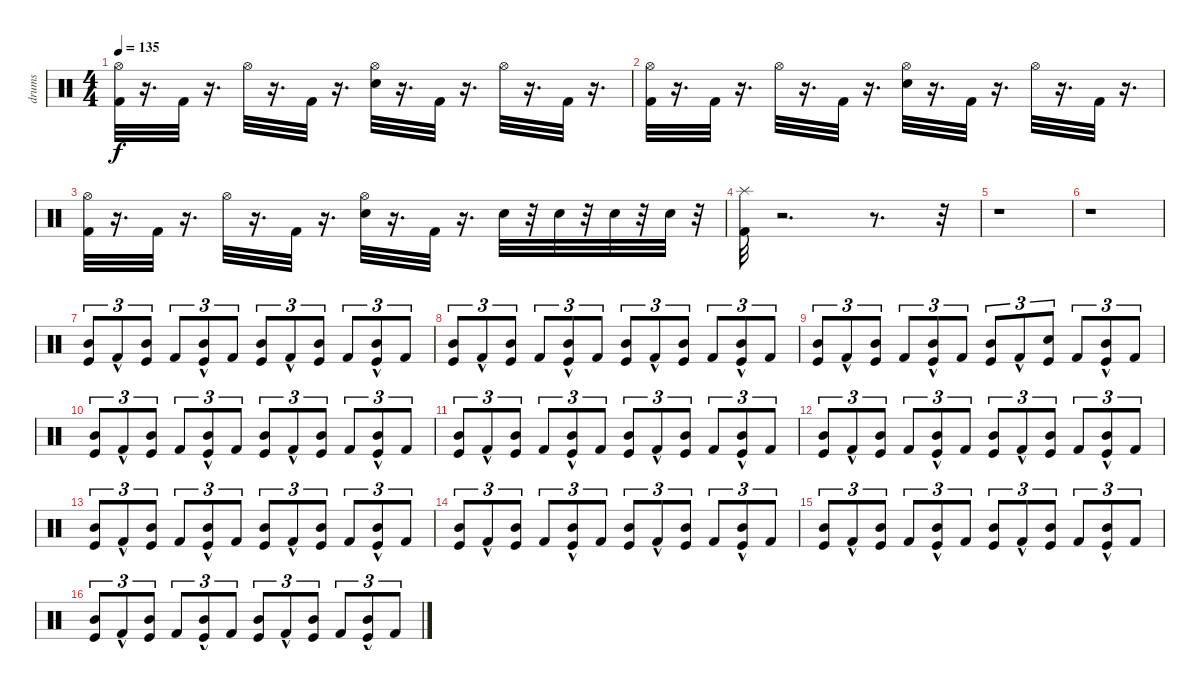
\track ("drums" "drums") {instrument percussion}
\staff {score}
\articulation defaults
\ts (4 4)
\tempo 135
\clef neutral
\ks c
("Hi-Hat (open)" "Kick (hit) 2").32{dy f} r.16{d} "Kick (hit) 2".32 r.16{d} "Hi-Hat (open)".32 r.16{d} "Kick (hit) 2".32 r.16{d} ("Hi-Hat (open)" "Snare (hit) 2").32 r.16{d} "Kick (hit) 2".32 r.16{d} "Hi-Hat (open)".32 r.16{d} "Kick (hit) 2".32 r.16{d} |
("Hi-Hat (open)" "Kick (hit) 2").32 r.16{d} "Kick (hit) 2".32 r.16{d} "Hi-Hat (open)".32 r.16{d} "Kick (hit) 2".32 r.16{d} ("Hi-Hat (open)" "Snare (hit) 2").32 r.16{d} "Kick (hit) 2".32 r.16{d} "Hi-Hat (open)".32 r.16{d} "Kick (hit) 2".32 r.16{d} |
("Hi-Hat (open)" "Kick (hit) 2").32 r.16{d} "Kick (hit) 2".32 r.16{d} "Hi-Hat (open)".32 r.16{d} "Kick (hit) 2".32 r.16{d} ("Hi-Hat (open)" "Snare (hit) 2").32 r.16{d} "Kick (hit) 2".32 r.16{d} "Snare (hit) 2".32 r.32 "Snare (hit) 2".32 r.32 "Snare (hit) 2".32 r.32 "Snare (hit) 2".32 r.32 |
("Splash (hit)" "Kick (hit) 2").32 r.2{d} r.8{d} r.32 |
r.1 |
r.1 |
("Kick (hit)" "Mid Tom (hit)").8{tu (3 2)} "Kick (hit) 2"{hac}.8{tu (3 2)} ("Kick (hit)" "Mid Tom (hit)").8{tu (3 2)} "Kick (hit) 2".8{tu (3 2)} ("Kick (hit)"{hac} "Mid Tom (hit)"{hac}).8{tu (3 2)} "Kick (hit) 2".8{tu (3 2)} ("Mid Tom (hit)" "Kick (hit)").8{tu (3 2)} "Kick (hit) 2"{hac}.8{tu (3 2)} ("Mid Tom (hit)" "Kick (hit)").8{tu (3 2)} "Kick (hit) 2".8{tu (3 2)} ("Mid Tom (hit)"{hac} "Kick (hit)"{hac}).8{tu (3 2)} "Kick (hit) 2".8{tu (3 2)} |
("Mid Tom (hit)" "Kick (hit)").8{tu (3 2)} "Kick (hit) 2"{hac}.8{tu (3 2)} ("Kick (hit)" "Mid Tom (hit)").8{tu (3 2)} "Kick (hit) 2".8{tu (3 2)} ("Kick (hit)"{hac} "Mid Tom (hit)"{hac}).8{tu (3 2)} "Kick (hit) 2".8{tu (3 2)} ("Kick (hit)" "Mid Tom (hit)").8{tu (3 2)} "Kick (hit) 2"{hac}.8{tu (3 2)} ("Mid Tom (hit)" "Kick (hit)").8{tu (3 2)} "Kick (hit) 2".8{tu (3 2)} ("Mid Tom (hit)"{hac} "Kick (hit)"{hac}).8{tu (3 2)} "Kick (hit) 2".8{tu (3 2)} |
("Mid Tom (hit)" "Kick (hit)").8{tu (3 2)} "Kick (hit) 2"{hac}.8{tu (3 2)} ("Kick (hit)" "Mid Tom (hit)").8{tu (3 2)} "Kick (hit) 2".8{tu (3 2)} ("Mid Tom (hit)"{hac} "Kick (hit)"{hac}).8{tu (3 2)} "Kick (hit) 2".8{tu (3 2)} ("Kick (hit)" "Mid Tom (hit)").8{tu (3 2)} "Kick (hit) 2"{hac}.8{tu (3 2)} ("Kick (hit)" "Electric Snare (hit)").8{tu (3 2)} "Kick (hit) 2".8{tu (3 2)} ("Kick (hit)"{hac} "Mid Tom (hit)"{hac}).8{tu (3 2)} "Kick (hit) 2".8{tu (3 2)} |
("Kick (hit)" "Mid Tom (hit)").8{tu (3 2)} "Kick (hit) 2"{hac}.8{tu (3 2)} ("Kick (hit)" "Mid Tom (hit)").8{tu (3 2)} "Kick (hit) 2".8{tu (3 2)} ("Mid Tom (hit)"{hac} "Kick (hit)"{hac}).8{tu (3 2)} "Kick (hit) 2".8{tu (3 2)} ("Mid Tom (hit)" "Kick (hit)").8{tu (3 2)} "Kick (hit) 2"{hac}.8{tu (3 2)} ("Mid Tom (hit)" "Kick (hit)").8{tu (3 2)} "Kick (hit) 2".8{tu (3 2)} ("Mid Tom (hit)"{hac} "Kick (hit)"{hac}).8{tu (3 2)} "Kick (hit) 2".8{tu (3 2)} |
("Kick (hit)" "Mid Tom (hit)").8{tu (3 2)} "Kick (hit) 2"{hac}.8{tu (3 2)} ("Kick (hit)" "Mid Tom (hit)").8{tu (3 2)} "Kick (hit) 2".8{tu (3 2)} ("Kick (hit)"{hac} "Mid Tom (hit)"{hac}).8{tu (3 2)} "Kick (hit) 2".8{tu (3 2)} ("Mid Tom (hit)" "Kick (hit)").8{tu (3 2)} "Kick (hit) 2"{hac}.8{tu (3 2)} ("Mid Tom (hit)" "Kick (hit)").8{tu (3 2)} "Kick (hit) 2".8{tu (3 2)} ("Mid Tom (hit)"{hac} "Kick (hit)"{hac}).8{tu (3 2)} "Kick (hit) 2".8{tu (3 2)} |
("Kick (hit)" "Mid Tom (hit)").8{tu (3 2)} "Kick (hit) 2"{hac}.8{tu (3 2)} ("Mid Tom (hit)" "Kick (hit)").8{tu (3 2)} "Kick (hit) 2".8{tu (3 2)} ("Kick (hit)"{hac} "Mid Tom (hit)"{hac}).8{tu (3 2)} "Kick (hit) 2".8{tu (3 2)} ("Kick (hit)" "Mid Tom (hit)").8{tu (3 2)} "Kick (hit) 2"{hac}.8{tu (3 2)} ("Kick (hit)" "Mid Tom (hit)").8{tu (3 2)} "Kick (hit) 2".8{tu (3 2)} ("Kick (hit)"{hac} "Mid Tom (hit)"{hac}).8{tu (3 2)} "Kick (hit) 2".8{tu (3 2)} |
("Kick (hit)" "Mid Tom (hit)").8{tu (3 2)} "Kick (hit) 2"{hac}.8{tu (3 2)} ("Mid Tom (hit)" "Kick (hit)").8{tu (3 2)} "Kick (hit) 2".8{tu (3 2)} ("Mid Tom (hit)"{hac} "Kick (hit)"{hac}).8{tu (3 2)} "Kick (hit) 2".8{tu (3 2)} ("Mid Tom (hit)" "Kick (hit)").8{tu (3 2)} "Kick (hit) 2"{hac}.8{tu (3 2)} ("Mid Tom (hit)" "Kick (hit)").8{tu (3 2)} "Kick (hit) 2".8{tu (3 2)} ("Kick (hit)"{hac} "Mid Tom (hit)"{hac}).8{tu (3 2)} "Kick (hit) 2".8{tu (3 2)} |
("Kick (hit)" "Mid Tom (hit)").8{tu (3 2)} "Kick (hit) 2"{hac}.8{tu (3 2)} ("Kick (hit)" "Mid Tom (hit)").8{tu (3 2)} "Kick (hit) 2".8{tu (3 2)} ("Mid Tom (hit)"{hac} "Kick (hit)"{hac}).8{tu (3 2)} "Kick (hit) 2".8{tu (3 2)} ("Mid Tom (hit)" "Kick (hit)").8{tu (3 2)} "Kick (hit) 2"{hac}.8{tu (3 2)} ("Mid Tom (hit)" "Kick (hit)").8{tu (3 2)} "Kick (hit) 2".8{tu (3 2)} ("Kick (hit)"{hac} "Mid Tom (hit)"{hac}).8{tu (3 2)} "Kick (hit) 2".8{tu (3 2)} |
("Mid Tom (hit)" "Kick (hit)").8{tu (3 2)} "Kick (hit) 2"{hac}.8{tu (3 2)} ("Kick (hit)" "Mid Tom (hit)").8{tu (3 2)} "Kick (hit) 2".8{tu (3 2)} ("Kick (hit)"{hac} "Mid Tom (hit)"{hac}).8{tu (3 2)} "Kick (hit) 2".8{tu (3 2)} ("Kick (hit)" "Mid Tom (hit)").8{tu (3 2)} "Kick (hit) 2"{hac}.8{tu (3 2)} ("Kick (hit)" "Mid Tom (hit)").8{tu (3 2)} "Kick (hit) 2".8{tu (3 2)} ("Kick (hit)"{hac} "Mid Tom (hit)"{hac}).8{tu (3 2)} "Kick (hit) 2".8{tu (3 2)} |
("Mid Tom (hit)" "Kick (hit)").8{tu (3 2)} "Kick (hit) 2"{hac}.8{tu (3 2)} ("Mid Tom (hit)" "Kick (hit)").8{tu (3 2)} "Kick (hit) 2".8{tu (3 2)} ("Mid Tom (hit)"{hac} "Kick (hit)"{hac}).8{tu (3 2)} "Kick (hit) 2".8{tu (3 2)} ("Mid Tom (hit)" "Kick (hit)").8{tu (3 2)} "Kick (hit) 2"{hac}.8{tu (3 2)} ("Kick (hit)" "Mid Tom (hit)").8{tu (3 2)} "Kick (hit) 2".8{tu (3 2)} ("Kick (hit)"{hac} "Mid Tom (hit)"{hac}).8{tu (3 2)} "Kick (hit) 2".8{tu (3 2)}
